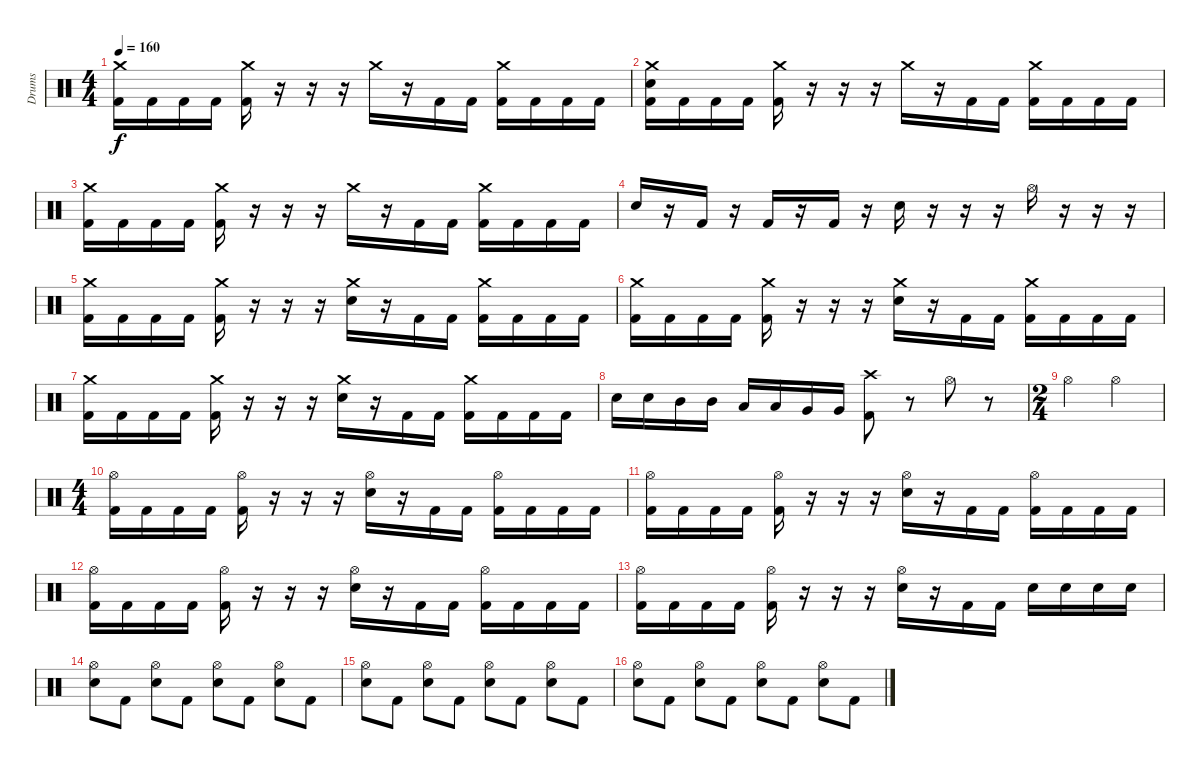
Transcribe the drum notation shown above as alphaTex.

\track ("Drums" "Drums") {instrument percussion}
\staff {score}
\articulation defaults
\ts (4 4)
\tempo 160
\clef neutral
\ks c
("Crash medium (hit)" "Kick (hit) 2").16{dy f} "Kick (hit) 2".16 "Kick (hit) 2".16 "Kick (hit) 2".16 ("Crash medium (hit)" "Kick (hit) 2").16 r.16 r.16 r.16 "Crash medium (hit)".16 r.16 "Kick (hit) 2".16 "Kick (hit) 2".16 ("Crash medium (hit)" "Kick (hit) 2").16 "Kick (hit) 2".16 "Kick (hit) 2".16 "Kick (hit) 2".16 |
("Crash medium (hit)" "Electric Snare (hit)" "Kick (hit) 2").16 "Kick (hit) 2".16 "Kick (hit) 2".16 "Kick (hit) 2".16 ("Crash medium (hit)" "Kick (hit) 2").16 r.16 r.16 r.16 "Crash medium (hit)".16 r.16 "Kick (hit) 2".16 "Kick (hit) 2".16 ("Crash medium (hit)" "Kick (hit) 2").16 "Kick (hit) 2".16 "Kick (hit) 2".16 "Kick (hit) 2".16 |
("Crash medium (hit)" "Kick (hit) 2").16 "Kick (hit) 2".16 "Kick (hit) 2".16 "Kick (hit) 2".16 ("Crash medium (hit)" "Kick (hit) 2").16 r.16 r.16 r.16 "Crash medium (hit)".16 r.16 "Kick (hit) 2".16 "Kick (hit) 2".16 ("Crash medium (hit)" "Kick (hit) 2").16 "Kick (hit) 2".16 "Kick (hit) 2".16 "Kick (hit) 2".16 |
"Electric Snare (hit)".16 r.16 "Kick (hit) 2".16 r.16 "Kick (hit) 2".16 r.16 "Kick (hit) 2".16 r.16 "Electric Snare (hit)".16 r.16 r.16 r.16 "Hi-Hat (open)".16 r.16 r.16 r.16 |
("Crash medium (hit)" "Kick (hit) 2").16 "Kick (hit) 2".16 "Kick (hit) 2".16 "Kick (hit) 2".16 ("Crash medium (hit)" "Kick (hit) 2").16 r.16 r.16 r.16 ("Crash medium (hit)" "Electric Snare (hit)").16 r.16 "Kick (hit) 2".16 "Kick (hit) 2".16 ("Crash medium (hit)" "Kick (hit) 2").16 "Kick (hit) 2".16 "Kick (hit) 2".16 "Kick (hit) 2".16 |
("Crash medium (hit)" "Kick (hit) 2").16 "Kick (hit) 2".16 "Kick (hit) 2".16 "Kick (hit) 2".16 ("Crash medium (hit)" "Kick (hit) 2").16 r.16 r.16 r.16 ("Crash medium (hit)" "Electric Snare (hit)").16 r.16 "Kick (hit) 2".16 "Kick (hit) 2".16 ("Crash medium (hit)" "Kick (hit) 2").16 "Kick (hit) 2".16 "Kick (hit) 2".16 "Kick (hit) 2".16 |
("Crash medium (hit)" "Kick (hit) 2").16 "Kick (hit) 2".16 "Kick (hit) 2".16 "Kick (hit) 2".16 ("Crash medium (hit)" "Kick (hit) 2").16 r.16 r.16 r.16 ("Crash medium (hit)" "Electric Snare (hit)").16 r.16 "Kick (hit) 2".16 "Kick (hit) 2".16 ("Crash medium (hit)" "Kick (hit) 2").16 "Kick (hit) 2".16 "Kick (hit) 2".16 "Kick (hit) 2".16 |
"Electric Snare (hit)".16 "Electric Snare (hit)".16 "Mid Tom (hit)".16 "Mid Tom (hit)".16 "Low Tom (hit)".16 "Low Tom (hit)".16 "Very Low Tom (hit)".16 "Very Low Tom (hit)".16 ("Crash high (hit)" "Kick (hit) 2").8 r.8 "Hi-Hat (open)".8 r.8 |
\ts (2 4)
"Hi-Hat (open)".4 "Hi-Hat (open)".4 |
\ts (4 4)
("Hi-Hat (open)" "Kick (hit) 2").16 "Kick (hit) 2".16 "Kick (hit) 2".16 "Kick (hit) 2".16 ("Hi-Hat (open)" "Kick (hit) 2").16 r.16 r.16 r.16 ("Hi-Hat (open)" "Electric Snare (hit)").16 r.16 "Kick (hit) 2".16 "Kick (hit) 2".16 ("Hi-Hat (open)" "Kick (hit) 2").16 "Kick (hit) 2".16 "Kick (hit) 2".16 "Kick (hit) 2".16 |
("Hi-Hat (open)" "Kick (hit) 2").16 "Kick (hit) 2".16 "Kick (hit) 2".16 "Kick (hit) 2".16 ("Hi-Hat (open)" "Kick (hit) 2").16 r.16 r.16 r.16 ("Hi-Hat (open)" "Electric Snare (hit)").16 r.16 "Kick (hit) 2".16 "Kick (hit) 2".16 ("Hi-Hat (open)" "Kick (hit) 2").16 "Kick (hit) 2".16 "Kick (hit) 2".16 "Kick (hit) 2".16 |
("Hi-Hat (open)" "Kick (hit) 2").16 "Kick (hit) 2".16 "Kick (hit) 2".16 "Kick (hit) 2".16 ("Hi-Hat (open)" "Kick (hit) 2").16 r.16 r.16 r.16 ("Hi-Hat (open)" "Electric Snare (hit)").16 r.16 "Kick (hit) 2".16 "Kick (hit) 2".16 ("Hi-Hat (open)" "Kick (hit) 2").16 "Kick (hit) 2".16 "Kick (hit) 2".16 "Kick (hit) 2".16 |
("Hi-Hat (open)" "Kick (hit) 2").16 "Kick (hit) 2".16 "Kick (hit) 2".16 "Kick (hit) 2".16 ("Hi-Hat (open)" "Kick (hit) 2").16 r.16 r.16 r.16 ("Hi-Hat (open)" "Electric Snare (hit)").16 r.16 "Kick (hit) 2".16 "Kick (hit) 2".16 "Electric Snare (hit)".16 "Electric Snare (hit)".16 "Electric Snare (hit)".16 "Electric Snare (hit)".16 |
("Hi-Hat (open)" "Electric Snare (hit)").8 "Kick (hit) 2".8 ("Hi-Hat (open)" "Electric Snare (hit)").8 "Kick (hit) 2".8 ("Hi-Hat (open)" "Electric Snare (hit)").8 "Kick (hit) 2".8 ("Hi-Hat (open)" "Electric Snare (hit)").8 "Kick (hit) 2".8 |
("Hi-Hat (open)" "Electric Snare (hit)").8 "Kick (hit) 2".8 ("Hi-Hat (open)" "Electric Snare (hit)").8 "Kick (hit) 2".8 ("Hi-Hat (open)" "Electric Snare (hit)").8 "Kick (hit) 2".8 ("Hi-Hat (open)" "Electric Snare (hit)").8 "Kick (hit) 2".8 |
("Hi-Hat (open)" "Electric Snare (hit)").8 "Kick (hit) 2".8 ("Hi-Hat (open)" "Electric Snare (hit)").8 "Kick (hit) 2".8 ("Hi-Hat (open)" "Electric Snare (hit)").8 "Kick (hit) 2".8 ("Hi-Hat (open)" "Electric Snare (hit)").8 "Kick (hit) 2".8
